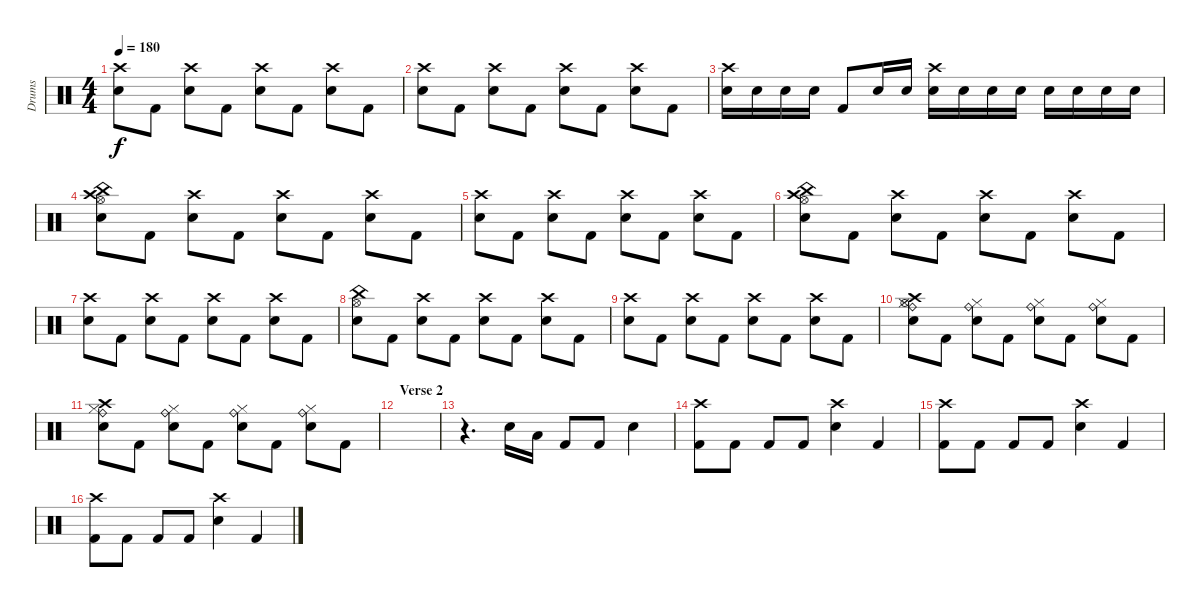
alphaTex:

\track ("Drums" "Drums") {instrument percussion}
\staff {score}
\articulation defaults
\ts (4 4)
\tempo 180
\clef neutral
\ks c
("Crash high (hit)" "Snare (hit) 2").8{dy f} "Kick (hit) 2".8 ("Crash high (hit)" "Snare (hit) 2").8 "Kick (hit) 2".8 ("Crash high (hit)" "Snare (hit) 2").8 "Kick (hit) 2".8 ("Crash high (hit)" "Snare (hit) 2").8 "Kick (hit) 2".8 |
("Crash high (hit)" "Snare (hit) 2").8 "Kick (hit) 2".8 ("Crash high (hit)" "Snare (hit) 2").8 "Kick (hit) 2".8 ("Crash high (hit)" "Snare (hit) 2").8 "Kick (hit) 2".8 ("Crash high (hit)" "Snare (hit) 2").8 "Kick (hit) 2".8 |
("Crash high (hit)" "Snare (hit) 2").16 "Snare (hit) 2".16 "Snare (hit) 2".16 "Snare (hit) 2".16 "Kick (hit) 2".8 "Snare (hit) 2".16 "Snare (hit) 2".16 ("Crash high (hit)" "Snare (hit) 2").16 "Snare (hit) 2".16 "Snare (hit) 2".16 "Snare (hit) 2".16 "Snare (hit) 2".16 "Snare (hit) 2".16 "Snare (hit) 2".16 "Snare (hit) 2".16 |
("China (hit)" "Hi-Hat (open)" "Crash high (hit)" "Snare (hit) 2").8 "Kick (hit) 2".8 ("Crash high (hit)" "Snare (hit) 2").8 "Kick (hit) 2".8 ("Crash high (hit)" "Snare (hit) 2").8 "Kick (hit) 2".8 ("Crash high (hit)" "Snare (hit) 2").8 "Kick (hit) 2".8 |
("Crash high (hit)" "Snare (hit) 2").8 "Kick (hit) 2".8 ("Crash high (hit)" "Snare (hit) 2").8 "Kick (hit) 2".8 ("Crash high (hit)" "Snare (hit) 2").8 "Kick (hit) 2".8 ("Crash high (hit)" "Snare (hit) 2").8 "Kick (hit) 2".8 |
("China (hit)" "Hi-Hat (open)" "Crash high (hit)" "Snare (hit) 2").8 "Kick (hit) 2".8 ("Crash high (hit)" "Snare (hit) 2").8 "Kick (hit) 2".8 ("Crash high (hit)" "Snare (hit) 2").8 "Kick (hit) 2".8 ("Crash high (hit)" "Snare (hit) 2").8 "Kick (hit) 2".8 |
("Crash high (hit)" "Snare (hit) 2").8 "Kick (hit) 2".8 ("Crash high (hit)" "Snare (hit) 2").8 "Kick (hit) 2".8 ("Crash high (hit)" "Snare (hit) 2").8 "Kick (hit) 2".8 ("Crash high (hit)" "Snare (hit) 2").8 "Kick (hit) 2".8 |
("China (hit)" "Hi-Hat (open)" "Snare (hit) 2").8 "Kick (hit) 2".8 ("Crash high (hit)" "Snare (hit) 2").8 "Kick (hit) 2".8 ("Crash high (hit)" "Snare (hit) 2").8 "Kick (hit) 2".8 ("Crash high (hit)" "Snare (hit) 2").8 "Kick (hit) 2".8 |
("Crash high (hit)" "Snare (hit) 2").8 "Kick (hit) 2".8 ("Crash high (hit)" "Snare (hit) 2").8 "Kick (hit) 2".8 ("Crash high (hit)" "Snare (hit) 2").8 "Kick (hit) 2".8 ("Crash high (hit)" "Snare (hit) 2").8 "Kick (hit) 2".8 |
("Hi-Hat (open)" "Crash high (hit)" "Snare (hit) 2" "Hi-Hat (closed)" "Ride (bell)").8 "Kick (hit) 2".8 ("Snare (hit) 2" "Hi-Hat (closed)" "Ride (bell)").8 "Kick (hit) 2".8 ("Snare (hit) 2" "Hi-Hat (closed)" "Ride (bell)").8 "Kick (hit) 2".8 ("Snare (hit) 2" "Hi-Hat (closed)" "Ride (bell)").8 "Kick (hit) 2".8 |
("Crash high (hit)" "Snare (hit) 2" "Hi-Hat (closed)" "Ride (bell)").8 "Kick (hit) 2".8 ("Snare (hit) 2" "Hi-Hat (closed)" "Ride (bell)").8 "Kick (hit) 2".8 ("Snare (hit) 2" "Hi-Hat (closed)" "Ride (bell)").8 "Kick (hit) 2".8 ("Snare (hit) 2" "Hi-Hat (closed)" "Ride (bell)").8 "Kick (hit) 2".8 |
\section ("" "Verse 2")
|
r.4{d} "Snare (hit) 2".16 "Low Tom (hit)".16 "Kick (hit) 2".8 "Kick (hit) 2".8 "Snare (hit) 2".4 |
("Crash high (hit)" "Kick (hit) 2").8 "Kick (hit) 2".8 "Kick (hit) 2".8 "Kick (hit) 2".8 ("Crash high (hit)" "Snare (hit) 2").4 "Kick (hit) 2".4 |
("Crash high (hit)" "Kick (hit) 2").8 "Kick (hit) 2".8 "Kick (hit) 2".8 "Kick (hit) 2".8 ("Crash high (hit)" "Snare (hit) 2").4 "Kick (hit) 2".4 |
("Crash high (hit)" "Kick (hit) 2").8 "Kick (hit) 2".8 "Kick (hit) 2".8 "Kick (hit) 2".8 ("Crash high (hit)" "Snare (hit) 2").4 "Kick (hit) 2".4
